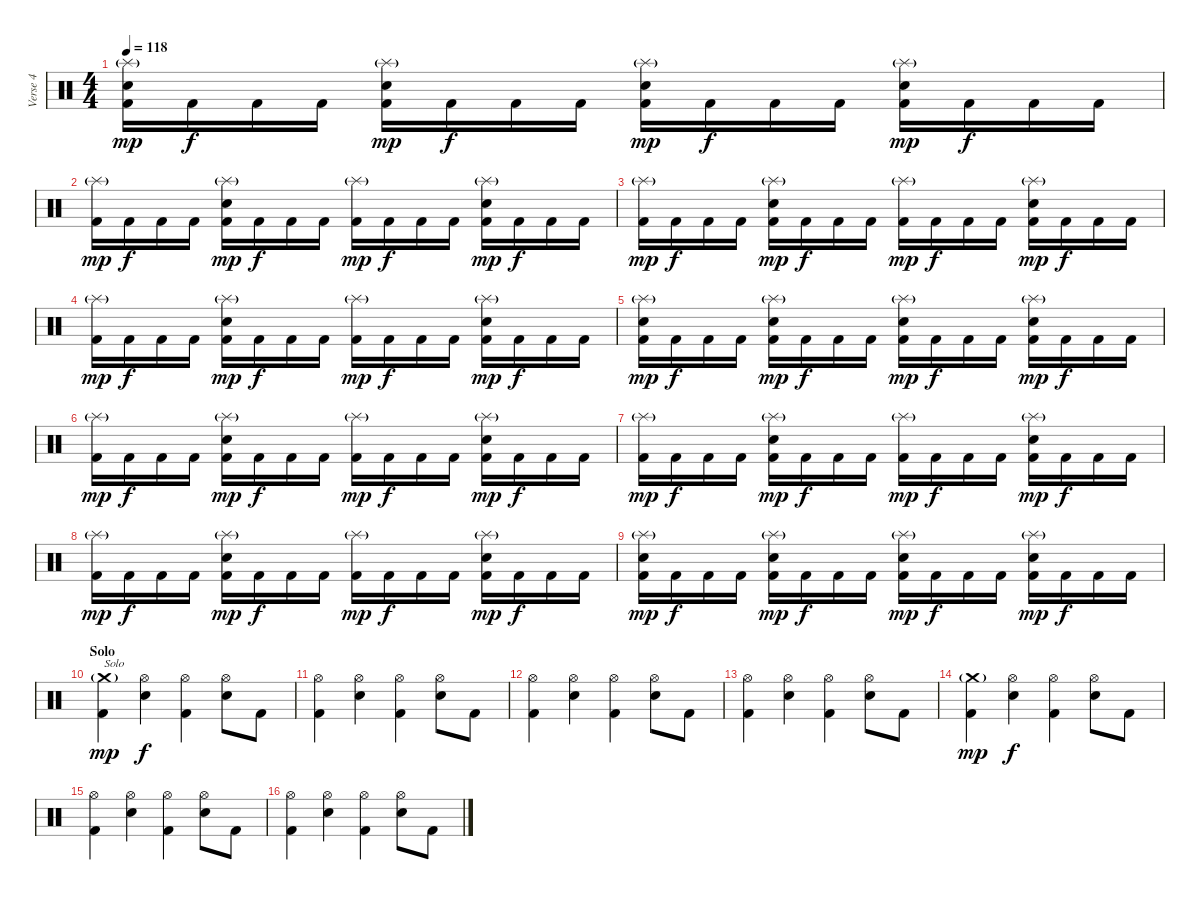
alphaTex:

\track ("Verse 4" "Verse 4") {instrument percussion}
\staff {score}
\articulation defaults
\ts (4 4)
\tempo 118
\clef neutral
\ks c
("Splash (hit)"{g} "Electric Snare (hit)" "Kick (hit) 2").16{dy mp} "Kick (hit) 2".16{dy f} "Kick (hit) 2".16 "Kick (hit) 2".16 ("Splash (hit)"{g} "Electric Snare (hit)" "Kick (hit) 2").16{dy mp} "Kick (hit) 2".16{dy f} "Kick (hit) 2".16 "Kick (hit) 2".16 ("Splash (hit)"{g} "Electric Snare (hit)" "Kick (hit) 2").16{dy mp} "Kick (hit) 2".16{dy f} "Kick (hit) 2".16 "Kick (hit) 2".16 ("Splash (hit)"{g} "Electric Snare (hit)" "Kick (hit) 2").16{dy mp} "Kick (hit) 2".16{dy f} "Kick (hit) 2".16 "Kick (hit) 2".16 |
("Splash (hit)"{g} "Kick (hit) 2").16{dy mp} "Kick (hit) 2".16{dy f} "Kick (hit) 2".16 "Kick (hit) 2".16 ("Splash (hit)"{g} "Electric Snare (hit)" "Kick (hit) 2").16{dy mp} "Kick (hit) 2".16{dy f} "Kick (hit) 2".16 "Kick (hit) 2".16 ("Splash (hit)"{g} "Kick (hit) 2").16{dy mp} "Kick (hit) 2".16{dy f} "Kick (hit) 2".16 "Kick (hit) 2".16 ("Splash (hit)"{g} "Electric Snare (hit)" "Kick (hit) 2").16{dy mp} "Kick (hit) 2".16{dy f} "Kick (hit) 2".16 "Kick (hit) 2".16 |
("Splash (hit)"{g} "Kick (hit) 2").16{dy mp} "Kick (hit) 2".16{dy f} "Kick (hit) 2".16 "Kick (hit) 2".16 ("Splash (hit)"{g} "Electric Snare (hit)" "Kick (hit) 2").16{dy mp} "Kick (hit) 2".16{dy f} "Kick (hit) 2".16 "Kick (hit) 2".16 ("Splash (hit)"{g} "Kick (hit) 2").16{dy mp} "Kick (hit) 2".16{dy f} "Kick (hit) 2".16 "Kick (hit) 2".16 ("Splash (hit)"{g} "Electric Snare (hit)" "Kick (hit) 2").16{dy mp} "Kick (hit) 2".16{dy f} "Kick (hit) 2".16 "Kick (hit) 2".16 |
("Splash (hit)"{g} "Kick (hit) 2").16{dy mp} "Kick (hit) 2".16{dy f} "Kick (hit) 2".16 "Kick (hit) 2".16 ("Splash (hit)"{g} "Electric Snare (hit)" "Kick (hit) 2").16{dy mp} "Kick (hit) 2".16{dy f} "Kick (hit) 2".16 "Kick (hit) 2".16 ("Splash (hit)"{g} "Kick (hit) 2").16{dy mp} "Kick (hit) 2".16{dy f} "Kick (hit) 2".16 "Kick (hit) 2".16 ("Splash (hit)"{g} "Electric Snare (hit)" "Kick (hit) 2").16{dy mp} "Kick (hit) 2".16{dy f} "Kick (hit) 2".16 "Kick (hit) 2".16 |
("Splash (hit)"{g} "Electric Snare (hit)" "Kick (hit) 2").16{dy mp} "Kick (hit) 2".16{dy f} "Kick (hit) 2".16 "Kick (hit) 2".16 ("Splash (hit)"{g} "Electric Snare (hit)" "Kick (hit) 2").16{dy mp} "Kick (hit) 2".16{dy f} "Kick (hit) 2".16 "Kick (hit) 2".16 ("Splash (hit)"{g} "Electric Snare (hit)" "Kick (hit) 2").16{dy mp} "Kick (hit) 2".16{dy f} "Kick (hit) 2".16 "Kick (hit) 2".16 ("Splash (hit)"{g} "Electric Snare (hit)" "Kick (hit) 2").16{dy mp} "Kick (hit) 2".16{dy f} "Kick (hit) 2".16 "Kick (hit) 2".16 |
("Splash (hit)"{g} "Kick (hit) 2").16{dy mp} "Kick (hit) 2".16{dy f} "Kick (hit) 2".16 "Kick (hit) 2".16 ("Splash (hit)"{g} "Electric Snare (hit)" "Kick (hit) 2").16{dy mp} "Kick (hit) 2".16{dy f} "Kick (hit) 2".16 "Kick (hit) 2".16 ("Splash (hit)"{g} "Kick (hit) 2").16{dy mp} "Kick (hit) 2".16{dy f} "Kick (hit) 2".16 "Kick (hit) 2".16 ("Splash (hit)"{g} "Electric Snare (hit)" "Kick (hit) 2").16{dy mp} "Kick (hit) 2".16{dy f} "Kick (hit) 2".16 "Kick (hit) 2".16 |
("Splash (hit)"{g} "Kick (hit) 2").16{dy mp} "Kick (hit) 2".16{dy f} "Kick (hit) 2".16 "Kick (hit) 2".16 ("Splash (hit)"{g} "Electric Snare (hit)" "Kick (hit) 2").16{dy mp} "Kick (hit) 2".16{dy f} "Kick (hit) 2".16 "Kick (hit) 2".16 ("Splash (hit)"{g} "Kick (hit) 2").16{dy mp} "Kick (hit) 2".16{dy f} "Kick (hit) 2".16 "Kick (hit) 2".16 ("Splash (hit)"{g} "Electric Snare (hit)" "Kick (hit) 2").16{dy mp} "Kick (hit) 2".16{dy f} "Kick (hit) 2".16 "Kick (hit) 2".16 |
("Splash (hit)"{g} "Kick (hit) 2").16{dy mp} "Kick (hit) 2".16{dy f} "Kick (hit) 2".16 "Kick (hit) 2".16 ("Splash (hit)"{g} "Electric Snare (hit)" "Kick (hit) 2").16{dy mp} "Kick (hit) 2".16{dy f} "Kick (hit) 2".16 "Kick (hit) 2".16 ("Splash (hit)"{g} "Kick (hit) 2").16{dy mp} "Kick (hit) 2".16{dy f} "Kick (hit) 2".16 "Kick (hit) 2".16 ("Splash (hit)"{g} "Electric Snare (hit)" "Kick (hit) 2").16{dy mp} "Kick (hit) 2".16{dy f} "Kick (hit) 2".16 "Kick (hit) 2".16 |
("Splash (hit)"{g} "Electric Snare (hit)" "Kick (hit) 2").16{dy mp} "Kick (hit) 2".16{dy f} "Kick (hit) 2".16 "Kick (hit) 2".16 ("Splash (hit)"{g} "Electric Snare (hit)" "Kick (hit) 2").16{dy mp} "Kick (hit) 2".16{dy f} "Kick (hit) 2".16 "Kick (hit) 2".16 ("Splash (hit)"{g} "Electric Snare (hit)" "Kick (hit) 2").16{dy mp} "Kick (hit) 2".16{dy f} "Kick (hit) 2".16 "Kick (hit) 2".16 ("Splash (hit)"{g} "Electric Snare (hit)" "Kick (hit) 2").16{dy mp} "Kick (hit) 2".16{dy f} "Kick (hit) 2".16 "Kick (hit) 2".16 |
\section ("" "Solo")
("Crash medium (hit)"{g} "Kick (hit) 2").4{txt "Solo" dy mp} ("Hi-Hat (open)" "Electric Snare (hit)").4{dy f} ("Hi-Hat (open)" "Kick (hit) 2").4 ("Hi-Hat (open)" "Electric Snare (hit)").8 "Kick (hit) 2".8 |
("Hi-Hat (open)" "Kick (hit) 2").4 ("Hi-Hat (open)" "Electric Snare (hit)").4 ("Hi-Hat (open)" "Kick (hit) 2").4 ("Hi-Hat (open)" "Electric Snare (hit)").8 "Kick (hit) 2".8 |
("Hi-Hat (open)" "Kick (hit) 2").4 ("Hi-Hat (open)" "Electric Snare (hit)").4 ("Hi-Hat (open)" "Kick (hit) 2").4 ("Hi-Hat (open)" "Electric Snare (hit)").8 "Kick (hit) 2".8 |
("Hi-Hat (open)" "Kick (hit) 2").4 ("Hi-Hat (open)" "Electric Snare (hit)").4 ("Hi-Hat (open)" "Kick (hit) 2").4 ("Hi-Hat (open)" "Electric Snare (hit)").8 "Kick (hit) 2".8 |
("Crash medium (hit)"{g} "Kick (hit) 2").4{dy mp} ("Hi-Hat (open)" "Electric Snare (hit)").4{dy f} ("Hi-Hat (open)" "Kick (hit) 2").4 ("Hi-Hat (open)" "Electric Snare (hit)").8 "Kick (hit) 2".8 |
("Hi-Hat (open)" "Kick (hit) 2").4 ("Hi-Hat (open)" "Electric Snare (hit)").4 ("Hi-Hat (open)" "Kick (hit) 2").4 ("Hi-Hat (open)" "Electric Snare (hit)").8 "Kick (hit) 2".8 |
("Hi-Hat (open)" "Kick (hit) 2").4 ("Hi-Hat (open)" "Electric Snare (hit)").4 ("Hi-Hat (open)" "Kick (hit) 2").4 ("Hi-Hat (open)" "Electric Snare (hit)").8 "Kick (hit) 2".8
